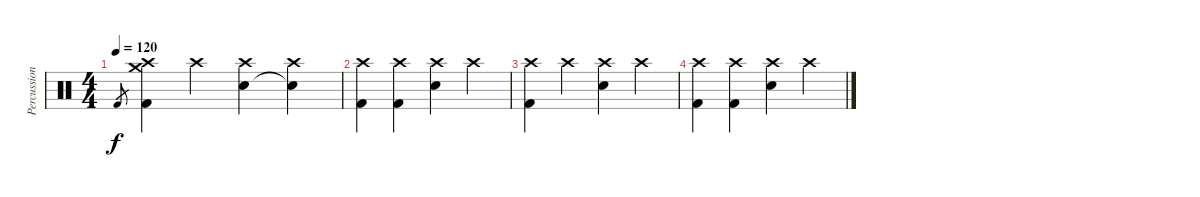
\track ("Percussion" "Percussion") {instrument percussion}
\staff {score}
\articulation defaults
\ts (4 4)
\tempo 120
\clef neutral
\ks c "Kick (hit) 2".8{gr dy f}
("Crash high (hit)" "Crash medium (hit)" "Kick (hit) 2").4 "Crash high (hit)".4 ("Crash high (hit)" "Electric Snare (hit)").4 ("Crash high (hit)" "Snare (hit)"{t}).4 |
("Crash high (hit)" "Kick (hit) 2").4 ("Crash high (hit)" "Kick (hit) 2").4 ("Crash high (hit)" "Electric Snare (hit)").4 "Crash high (hit)".4 |
("Crash high (hit)" "Kick (hit) 2").4 "Crash high (hit)".4 ("Crash high (hit)" "Electric Snare (hit)").4 "Crash high (hit)".4 |
("Crash high (hit)" "Kick (hit) 2").4 ("Crash high (hit)" "Kick (hit) 2").4 ("Crash high (hit)" "Electric Snare (hit)").4 "Crash high (hit)".4
